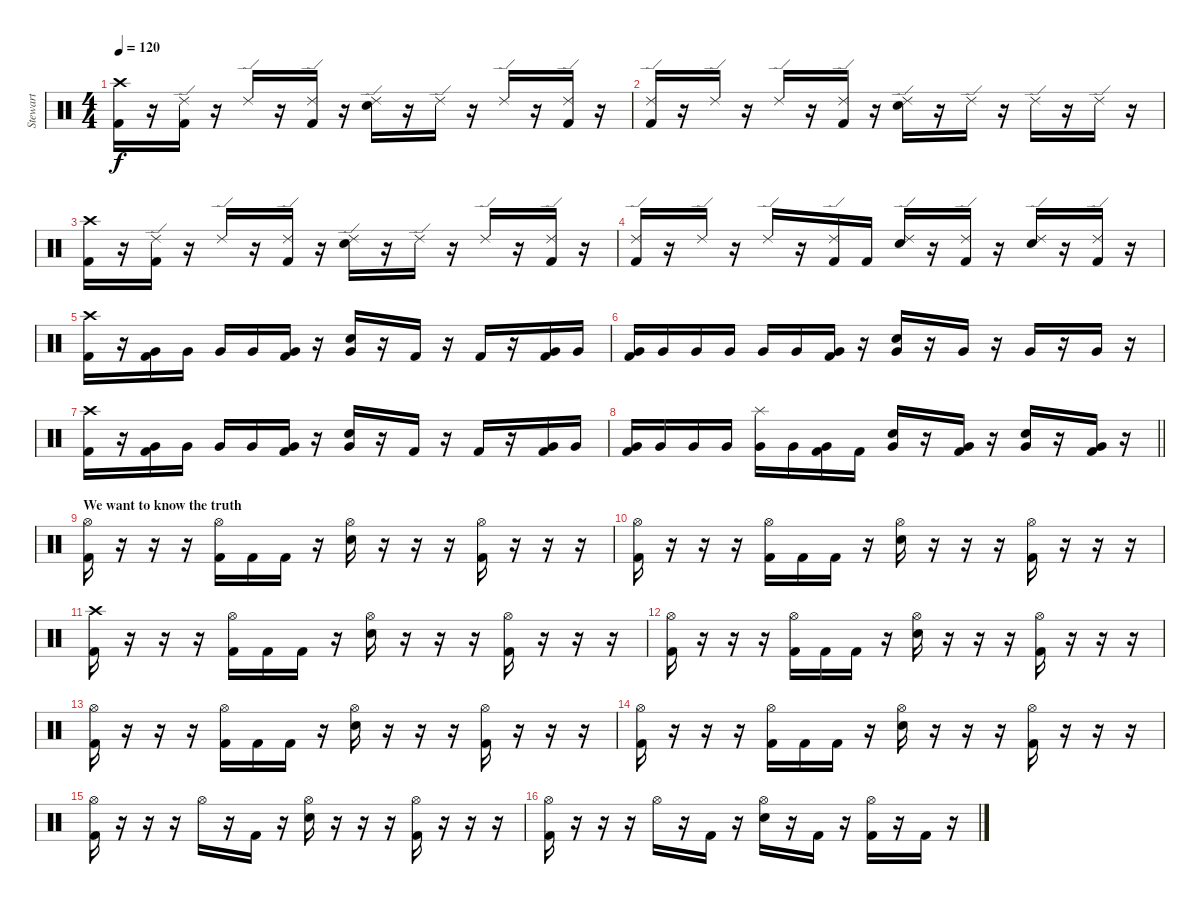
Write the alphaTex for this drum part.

\track ("Stewart" "Stewart") {instrument percussion}
\staff {score}
\articulation defaults
\ts (4 4)
\tempo 120
\clef neutral
\ks c
("Crash high (hit)" "Kick (hit) 2").16{dy f} r.16 ("Ride (edge) 2" "Kick (hit) 2").16 r.16 "Ride (edge) 2".16 r.16 ("Ride (edge) 2" "Kick (hit) 2").16 r.16 ("Ride (edge) 2" "Electric Snare (hit)").16 r.16 "Ride (edge) 2".16 r.16 "Ride (edge) 2".16 r.16 ("Ride (edge) 2" "Kick (hit) 2").16 r.16 |
("Ride (edge) 2" "Kick (hit) 2").16 r.16 "Ride (edge) 2".16 r.16 "Ride (edge) 2".16 r.16 ("Ride (edge) 2" "Kick (hit) 2").16 r.16 ("Ride (edge) 2" "Electric Snare (hit)").16 r.16 "Ride (edge) 2".16 r.16 "Ride (edge) 2".16 r.16 "Ride (edge) 2".16 r.16 |
("Crash high (hit)" "Kick (hit) 2").16 r.16 ("Ride (edge) 2" "Kick (hit) 2").16 r.16 "Ride (edge) 2".16 r.16 ("Ride (edge) 2" "Kick (hit) 2").16 r.16 ("Ride (edge) 2" "Electric Snare (hit)").16 r.16 "Ride (edge) 2".16 r.16 "Ride (edge) 2".16 r.16 ("Ride (edge) 2" "Kick (hit) 2").16 r.16 |
("Ride (edge) 2" "Kick (hit) 2").16 r.16 "Ride (edge) 2".16 r.16 "Ride (edge) 2".16 r.16 ("Ride (edge) 2" "Kick (hit) 2").16 "Kick (hit) 2".16 ("Ride (edge) 2" "Electric Snare (hit)").16 r.16 ("Ride (edge) 2" "Kick (hit) 2").16 r.16 ("Ride (edge) 2" "Electric Snare (hit)").16 r.16 ("Ride (edge) 2" "Kick (hit) 2").16 r.16 |
("Crash high (hit)" "Kick (hit) 2").16 r.16 ("Very Low Tom (hit)" "Kick (hit) 2").16 "Very Low Tom (hit)".16 "Very Low Tom (hit)".16 "Very Low Tom (hit)".16 ("Very Low Tom (hit)" "Kick (hit) 2").16 r.16 ("Very Low Tom (hit)" "Electric Snare (hit)").16 r.16 "Kick (hit) 2".16 r.16 "Kick (hit) 2".16 r.16 ("Very Low Tom (hit)" "Kick (hit) 2").16 "Very Low Tom (hit)".16 |
("Very Low Tom (hit)" "Kick (hit) 2").16 "Very Low Tom (hit)".16 "Very Low Tom (hit)".16 "Very Low Tom (hit)".16 "Very Low Tom (hit)".16 "Very Low Tom (hit)".16 ("Very Low Tom (hit)" "Kick (hit) 2").16 r.16 ("Very Low Tom (hit)" "Electric Snare (hit)").16 r.16 "Very Low Tom (hit)".16 r.16 "Very Low Tom (hit)".16 r.16 "Very Low Tom (hit)".16 r.16 |
("Crash high (hit)" "Kick (hit) 2").16 r.16 ("Very Low Tom (hit)" "Kick (hit) 2").16 "Very Low Tom (hit)".16 "Very Low Tom (hit)".16 "Very Low Tom (hit)".16 ("Very Low Tom (hit)" "Kick (hit) 2").16 r.16 ("Very Low Tom (hit)" "Electric Snare (hit)").16 r.16 "Kick (hit) 2".16 r.16 "Kick (hit) 2".16 r.16 ("Very Low Tom (hit)" "Kick (hit) 2").16 "Very Low Tom (hit)".16 |
\barLineRight lightlight
("Very Low Tom (hit)" "Kick (hit) 2").16 "Very Low Tom (hit)".16 "Very Low Tom (hit)".16 "Very Low Tom (hit)".16 ("Very Low Tom (hit)" "Splash (hit)").16 "Very Low Tom (hit)".16 ("Very Low Tom (hit)" "Kick (hit) 2").16 "Kick (hit) 2".16 ("Very Low Tom (hit)" "Electric Snare (hit)").16 r.16 ("Very Low Tom (hit)" "Kick (hit) 2").16 r.16 ("Very Low Tom (hit)" "Electric Snare (hit)").16 r.16 ("Very Low Tom (hit)" "Kick (hit) 2").16 r.16 |
\section ("" "We want to know the truth")
("Hi-Hat (open)" "Kick (hit) 2").16 r.16 r.16 r.16 ("Hi-Hat (open)" "Kick (hit) 2").16 "Kick (hit) 2".16 "Kick (hit) 2".16 r.16 ("Hi-Hat (open)" "Electric Snare (hit)").16 r.16 r.16 r.16 ("Hi-Hat (open)" "Kick (hit) 2").16 r.16 r.16 r.16 |
("Hi-Hat (open)" "Kick (hit) 2").16 r.16 r.16 r.16 ("Hi-Hat (open)" "Kick (hit) 2").16 "Kick (hit) 2".16 "Kick (hit) 2".16 r.16 ("Hi-Hat (open)" "Electric Snare (hit)").16 r.16 r.16 r.16 ("Hi-Hat (open)" "Kick (hit) 2").16 r.16 r.16 r.16 |
("Crash high (hit)" "Kick (hit) 2").16 r.16 r.16 r.16 ("Hi-Hat (open)" "Kick (hit) 2").16 "Kick (hit) 2".16 "Kick (hit) 2".16 r.16 ("Hi-Hat (open)" "Electric Snare (hit)").16 r.16 r.16 r.16 ("Hi-Hat (open)" "Kick (hit) 2").16 r.16 r.16 r.16 |
("Hi-Hat (open)" "Kick (hit) 2").16 r.16 r.16 r.16 ("Hi-Hat (open)" "Kick (hit) 2").16 "Kick (hit) 2".16 "Kick (hit) 2".16 r.16 ("Hi-Hat (open)" "Electric Snare (hit)").16 r.16 r.16 r.16 ("Hi-Hat (open)" "Kick (hit) 2").16 r.16 r.16 r.16 |
("Hi-Hat (open)" "Kick (hit) 2").16 r.16 r.16 r.16 ("Hi-Hat (open)" "Kick (hit) 2").16 "Kick (hit) 2".16 "Kick (hit) 2".16 r.16 ("Hi-Hat (open)" "Electric Snare (hit)").16 r.16 r.16 r.16 ("Hi-Hat (open)" "Kick (hit) 2").16 r.16 r.16 r.16 |
("Hi-Hat (open)" "Kick (hit) 2").16 r.16 r.16 r.16 ("Hi-Hat (open)" "Kick (hit) 2").16 "Kick (hit) 2".16 "Kick (hit) 2".16 r.16 ("Hi-Hat (open)" "Electric Snare (hit)").16 r.16 r.16 r.16 ("Hi-Hat (open)" "Kick (hit) 2").16 r.16 r.16 r.16 |
("Hi-Hat (open)" "Kick (hit) 2").16 r.16 r.16 r.16 "Hi-Hat (open)".16 r.16 "Kick (hit) 2".16 r.16 ("Hi-Hat (open)" "Electric Snare (hit)").16 r.16 r.16 r.16 ("Hi-Hat (open)" "Kick (hit) 2").16 r.16 r.16 r.16 |
("Hi-Hat (open)" "Kick (hit) 2").16 r.16 r.16 r.16 "Hi-Hat (open)".16 r.16 "Kick (hit) 2".16 r.16 ("Hi-Hat (open)" "Electric Snare (hit)").16 r.16 "Kick (hit) 2".16 r.16 ("Hi-Hat (open)" "Kick (hit) 2").16 r.16 "Kick (hit) 2".16 r.16
